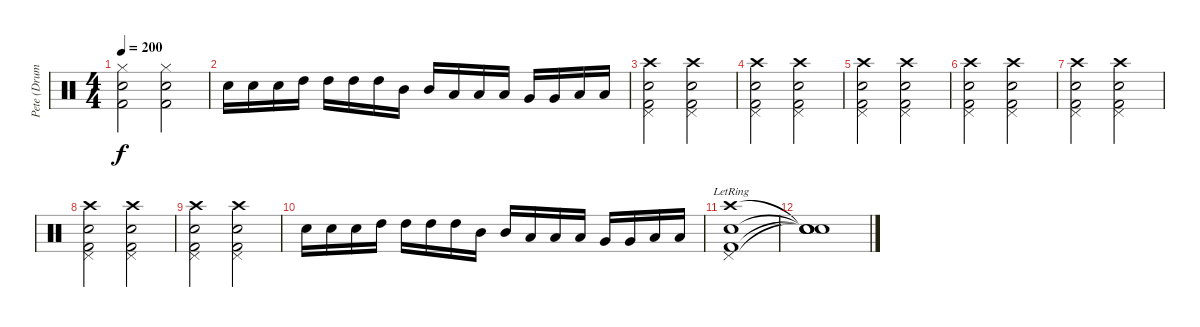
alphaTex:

\track ("Pete (Drums)" "Pete (Drum") {instrument percussion}
\staff {score}
\articulation defaults
\ts (4 4)
\tempo 200
\clef neutral
\ks c
("Hi-Hat (closed)" "Snare (hit) 2" "Kick (hit) 2").2{dy f} ("Hi-Hat (closed)" "Snare (hit) 2" "Kick (hit) 2").2 |
"Snare (hit) 2".16 "Snare (hit) 2".16 "Snare (hit) 2".16 "High Tom (hit)".16 "High Tom (hit)".16 "High Tom (hit)".16 "High Tom (hit)".16 "Mid Tom (hit)".16 "Mid Tom (hit)".16 "Low Tom (hit)".16 "Low Tom (hit)".16 "Low Tom (hit)".16 "Very Low Tom (hit)".16 "Very Low Tom (hit)".16 "Low Floor Tom (hit)".16 "Low Floor Tom (hit)".16 |
("Pedal Hi-Hat (hit)" "Snare (hit) 2" "Kick (hit) 2" "Crash high (hit)").2 ("Pedal Hi-Hat (hit)" "Snare (hit) 2" "Kick (hit) 2" "Crash high (hit)").2 |
("Pedal Hi-Hat (hit)" "Snare (hit) 2" "Kick (hit) 2" "Crash high (hit)").2 ("Pedal Hi-Hat (hit)" "Snare (hit) 2" "Kick (hit) 2" "Crash high (hit)").2 |
("Pedal Hi-Hat (hit)" "Snare (hit) 2" "Kick (hit) 2" "Crash high (hit)").2 ("Pedal Hi-Hat (hit)" "Snare (hit) 2" "Kick (hit) 2" "Crash high (hit)").2 |
("Pedal Hi-Hat (hit)" "Snare (hit) 2" "Kick (hit) 2" "Crash high (hit)").2 ("Pedal Hi-Hat (hit)" "Snare (hit) 2" "Kick (hit) 2" "Crash high (hit)").2 |
("Pedal Hi-Hat (hit)" "Snare (hit) 2" "Kick (hit) 2" "Crash high (hit)").2 ("Pedal Hi-Hat (hit)" "Snare (hit) 2" "Kick (hit) 2" "Crash high (hit)").2 |
("Pedal Hi-Hat (hit)" "Snare (hit) 2" "Kick (hit) 2" "Crash high (hit)").2 ("Pedal Hi-Hat (hit)" "Snare (hit) 2" "Kick (hit) 2" "Crash high (hit)").2 |
("Pedal Hi-Hat (hit)" "Snare (hit) 2" "Kick (hit) 2" "Crash high (hit)").2 ("Pedal Hi-Hat (hit)" "Snare (hit) 2" "Kick (hit) 2" "Crash high (hit)").2 |
"Snare (hit) 2".16 "Snare (hit) 2".16 "Snare (hit) 2".16 "High Tom (hit)".16 "High Tom (hit)".16 "High Tom (hit)".16 "High Tom (hit)".16 "Mid Tom (hit)".16 "Mid Tom (hit)".16 "Low Tom (hit)".16 "Low Tom (hit)".16 "Low Tom (hit)".16 "Very Low Tom (hit)".16 "Very Low Tom (hit)".16 "Low Floor Tom (hit)".16 "Low Floor Tom (hit)".16 |
("Pedal Hi-Hat (hit)"{lr} "Kick (hit) 2"{lr} "Snare (hit) 2"{lr} "Crash high (hit)"{lr}).1 |
("Snare (hit)"{t} "Snare (hit)"{t} "Snare (hit)"{t} "Snare (hit)"{t}).1
